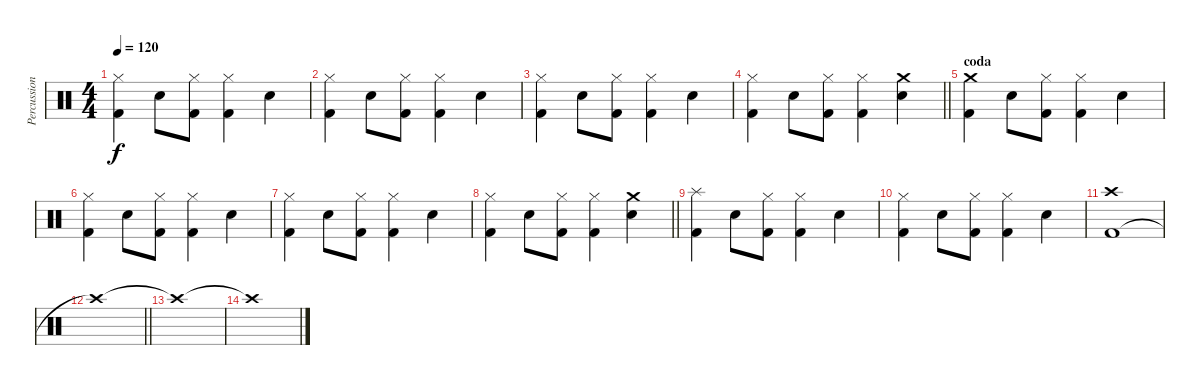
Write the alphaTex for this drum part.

\track ("Percussion" "Percussion") {instrument percussion}
\staff {score}
\articulation defaults
\ts (4 4)
\tempo 120
\clef neutral
\ks c
("Kick (hit) 2" "Hi-Hat (closed)").4{dy f} "Electric Snare (hit)".8 ("Kick (hit) 2" "Hi-Hat (closed)").8 ("Kick (hit) 2" "Hi-Hat (closed)").4 "Electric Snare (hit)".4 |
("Kick (hit) 2" "Hi-Hat (closed)").4 "Electric Snare (hit)".8 ("Kick (hit) 2" "Hi-Hat (closed)").8 ("Kick (hit) 2" "Hi-Hat (closed)").4 "Electric Snare (hit)".4 |
("Kick (hit) 2" "Hi-Hat (closed)").4 "Electric Snare (hit)".8 ("Kick (hit) 2" "Hi-Hat (closed)").8 ("Kick (hit) 2" "Hi-Hat (closed)").4 "Electric Snare (hit)".4 |
\barLineRight lightlight
("Kick (hit) 2" "Hi-Hat (closed)").4 "Electric Snare (hit)".8 ("Kick (hit) 2" "Hi-Hat (closed)").8 ("Kick (hit) 2" "Hi-Hat (closed)").4 ("Electric Snare (hit)" "Crash medium (hit)").4 |
\section ("" "coda")
("Kick (hit) 2" "Crash medium (hit)").4 "Electric Snare (hit)".8 ("Kick (hit) 2" "Hi-Hat (closed)").8 ("Kick (hit) 2" "Hi-Hat (closed)").4 "Electric Snare (hit)".4 |
("Kick (hit) 2" "Hi-Hat (closed)").4 "Electric Snare (hit)".8 ("Kick (hit) 2" "Hi-Hat (closed)").8 ("Kick (hit) 2" "Hi-Hat (closed)").4 "Electric Snare (hit)".4 |
("Kick (hit) 2" "Hi-Hat (closed)").4 "Electric Snare (hit)".8 ("Kick (hit) 2" "Hi-Hat (closed)").8 ("Kick (hit) 2" "Hi-Hat (closed)").4 "Electric Snare (hit)".4 |
\barLineRight lightlight
("Kick (hit) 2" "Hi-Hat (closed)").4 "Electric Snare (hit)".8 ("Kick (hit) 2" "Hi-Hat (closed)").8 ("Kick (hit) 2" "Hi-Hat (closed)").4 ("Electric Snare (hit)" "Crash medium (hit)").4 |
("Kick (hit) 2" "Splash (hit)").4 "Electric Snare (hit)".8 ("Kick (hit) 2" "Hi-Hat (closed)").8 ("Kick (hit) 2" "Hi-Hat (closed)").4 "Electric Snare (hit)".4 |
("Kick (hit) 2" "Hi-Hat (closed)").4 "Electric Snare (hit)".8 ("Kick (hit) 2" "Hi-Hat (closed)").8 ("Kick (hit) 2" "Hi-Hat (closed)").4 "Electric Snare (hit)".4 |
("Kick (hit) 2" "Crash high (hit)").1 |
\barLineRight lightlight "Crash high (hit)"{t}.1
|
"Crash high (hit)"{t}.1 |
"Crash high (hit)"{t}.1
